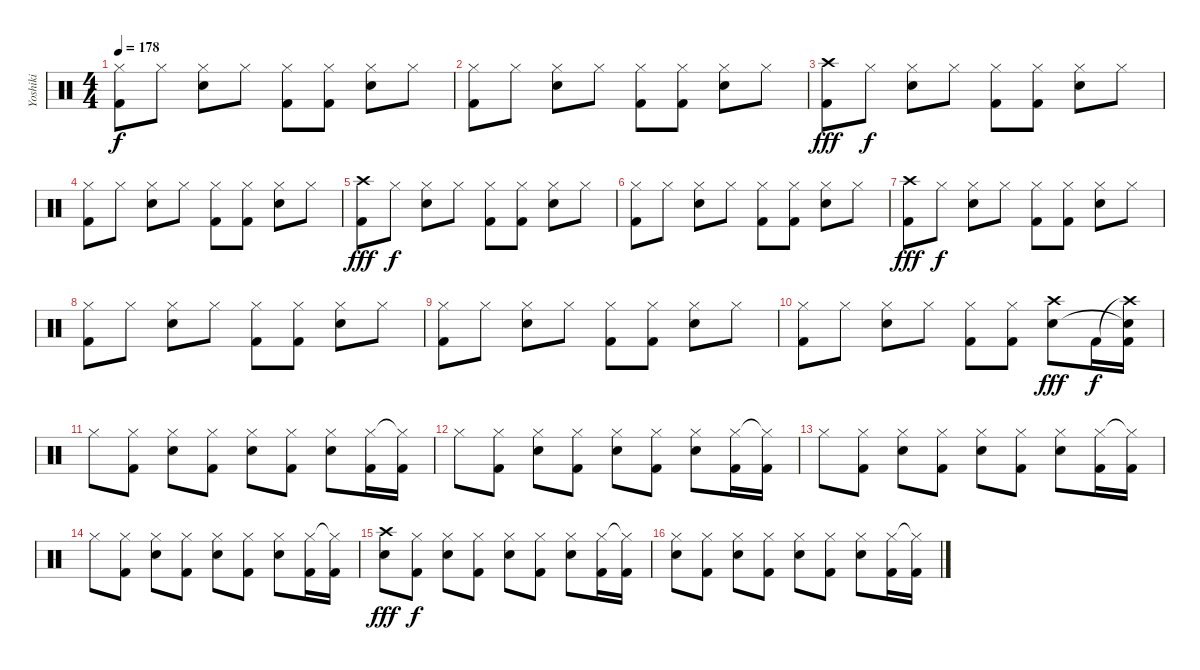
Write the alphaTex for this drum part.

\track ("Yoshiki" "Yoshiki") {instrument percussion}
\staff {score}
\articulation defaults
\ts (4 4)
\tempo 178
\clef neutral
\ks c
("Hi-Hat (closed)" "Kick (hit) 2").8{dy f} "Hi-Hat (closed)".8 ("Hi-Hat (closed)" "Snare (hit) 2").8 "Hi-Hat (closed)".8 ("Hi-Hat (closed)" "Kick (hit) 2").8 ("Hi-Hat (closed)" "Kick (hit) 2").8 ("Hi-Hat (closed)" "Snare (hit) 2").8 "Hi-Hat (closed)".8 |
("Hi-Hat (closed)" "Kick (hit) 2").8 "Hi-Hat (closed)".8 ("Hi-Hat (closed)" "Snare (hit) 2").8 "Hi-Hat (closed)".8 ("Hi-Hat (closed)" "Kick (hit) 2").8 ("Hi-Hat (closed)" "Kick (hit) 2").8 ("Hi-Hat (closed)" "Snare (hit) 2").8 "Hi-Hat (closed)".8 |
("Crash high (hit)" "Kick (hit) 2").8{dy fff} "Hi-Hat (closed)".8{dy f} ("Hi-Hat (closed)" "Snare (hit) 2").8 "Hi-Hat (closed)".8 ("Hi-Hat (closed)" "Kick (hit) 2").8 ("Hi-Hat (closed)" "Kick (hit) 2").8 ("Hi-Hat (closed)" "Snare (hit) 2").8 "Hi-Hat (closed)".8 |
("Hi-Hat (closed)" "Kick (hit) 2").8 "Hi-Hat (closed)".8 ("Hi-Hat (closed)" "Snare (hit) 2").8 "Hi-Hat (closed)".8 ("Hi-Hat (closed)" "Kick (hit) 2").8 ("Hi-Hat (closed)" "Kick (hit) 2").8 ("Hi-Hat (closed)" "Snare (hit) 2").8 "Hi-Hat (closed)".8 |
("Crash high (hit)" "Kick (hit) 2").8{dy fff} "Hi-Hat (closed)".8{dy f} ("Hi-Hat (closed)" "Snare (hit) 2").8 "Hi-Hat (closed)".8 ("Hi-Hat (closed)" "Kick (hit) 2").8 ("Hi-Hat (closed)" "Kick (hit) 2").8 ("Hi-Hat (closed)" "Snare (hit) 2").8 "Hi-Hat (closed)".8 |
("Hi-Hat (closed)" "Kick (hit) 2").8 "Hi-Hat (closed)".8 ("Hi-Hat (closed)" "Snare (hit) 2").8 "Hi-Hat (closed)".8 ("Hi-Hat (closed)" "Kick (hit) 2").8 ("Hi-Hat (closed)" "Kick (hit) 2").8 ("Hi-Hat (closed)" "Snare (hit) 2").8 "Hi-Hat (closed)".8 |
("Crash high (hit)" "Kick (hit) 2").8{dy fff} "Hi-Hat (closed)".8{dy f} ("Hi-Hat (closed)" "Snare (hit) 2").8 "Hi-Hat (closed)".8 ("Hi-Hat (closed)" "Kick (hit) 2").8 ("Hi-Hat (closed)" "Kick (hit) 2").8 ("Hi-Hat (closed)" "Snare (hit) 2").8 "Hi-Hat (closed)".8 |
("Hi-Hat (closed)" "Kick (hit) 2").8 "Hi-Hat (closed)".8 ("Hi-Hat (closed)" "Snare (hit) 2").8 "Hi-Hat (closed)".8 ("Hi-Hat (closed)" "Kick (hit) 2").8 ("Hi-Hat (closed)" "Kick (hit) 2").8 ("Hi-Hat (closed)" "Snare (hit) 2").8 "Hi-Hat (closed)".8 |
("Hi-Hat (closed)" "Kick (hit) 2").8 "Hi-Hat (closed)".8 ("Hi-Hat (closed)" "Snare (hit) 2").8 "Hi-Hat (closed)".8 ("Hi-Hat (closed)" "Kick (hit) 2").8 ("Hi-Hat (closed)" "Kick (hit) 2").8 ("Hi-Hat (closed)" "Snare (hit) 2").8 "Hi-Hat (closed)".8 |
("Hi-Hat (closed)" "Kick (hit) 2").8 "Hi-Hat (closed)".8 ("Hi-Hat (closed)" "Snare (hit) 2").8 "Hi-Hat (closed)".8 ("Hi-Hat (closed)" "Kick (hit) 2").8 ("Hi-Hat (closed)" "Kick (hit) 2").8 ("Crash high (hit)" "Snare (hit) 2").8{dy fff} "Kick (hit) 2".16{dy f} ("Crash high (hit)"{t} "Snare (hit) 2"{t} "Kick (hit) 2").16 |
"Hi-Hat (closed)".8 ("Hi-Hat (closed)" "Kick (hit) 2").8 ("Hi-Hat (closed)" "Snare (hit) 2").8 ("Hi-Hat (closed)" "Kick (hit) 2").8 ("Hi-Hat (closed)" "Snare (hit) 2").8 ("Hi-Hat (closed)" "Kick (hit) 2").8 ("Hi-Hat (closed)" "Snare (hit) 2").8 ("Hi-Hat (closed)" "Kick (hit) 2").16 ("Hi-Hat (closed)"{t} "Kick (hit) 2").16 |
"Hi-Hat (closed)".8 ("Hi-Hat (closed)" "Kick (hit) 2").8 ("Hi-Hat (closed)" "Snare (hit) 2").8 ("Hi-Hat (closed)" "Kick (hit) 2").8 ("Hi-Hat (closed)" "Snare (hit) 2").8 ("Hi-Hat (closed)" "Kick (hit) 2").8 ("Hi-Hat (closed)" "Snare (hit) 2").8 ("Hi-Hat (closed)" "Kick (hit) 2").16 ("Hi-Hat (closed)"{t} "Kick (hit) 2").16 |
"Hi-Hat (closed)".8 ("Hi-Hat (closed)" "Kick (hit) 2").8 ("Hi-Hat (closed)" "Snare (hit) 2").8 ("Hi-Hat (closed)" "Kick (hit) 2").8 ("Hi-Hat (closed)" "Snare (hit) 2").8 ("Hi-Hat (closed)" "Kick (hit) 2").8 ("Hi-Hat (closed)" "Snare (hit) 2").8 ("Hi-Hat (closed)" "Kick (hit) 2").16 ("Hi-Hat (closed)"{t} "Kick (hit) 2").16 |
"Hi-Hat (closed)".8 ("Hi-Hat (closed)" "Kick (hit) 2").8 ("Hi-Hat (closed)" "Snare (hit) 2").8 ("Hi-Hat (closed)" "Kick (hit) 2").8 ("Hi-Hat (closed)" "Snare (hit) 2").8 ("Hi-Hat (closed)" "Kick (hit) 2").8 ("Hi-Hat (closed)" "Snare (hit) 2").8 ("Hi-Hat (closed)" "Kick (hit) 2").16 ("Hi-Hat (closed)"{t} "Kick (hit) 2").16 |
("Crash high (hit)" "Snare (hit) 2").8{dy fff} ("Hi-Hat (closed)" "Kick (hit) 2").8{dy f} ("Hi-Hat (closed)" "Snare (hit) 2").8 ("Hi-Hat (closed)" "Kick (hit) 2").8 ("Hi-Hat (closed)" "Snare (hit) 2").8 ("Hi-Hat (closed)" "Kick (hit) 2").8 ("Hi-Hat (closed)" "Snare (hit) 2").8 ("Hi-Hat (closed)" "Kick (hit) 2").16 ("Hi-Hat (closed)"{t} "Kick (hit) 2").16 |
("Hi-Hat (closed)" "Snare (hit) 2").8 ("Hi-Hat (closed)" "Kick (hit) 2").8 ("Hi-Hat (closed)" "Snare (hit) 2").8 ("Hi-Hat (closed)" "Kick (hit) 2").8 ("Hi-Hat (closed)" "Snare (hit) 2").8 ("Hi-Hat (closed)" "Kick (hit) 2").8 ("Hi-Hat (closed)" "Snare (hit) 2").8 ("Hi-Hat (closed)" "Kick (hit) 2").16 ("Hi-Hat (closed)"{t} "Kick (hit) 2").16
